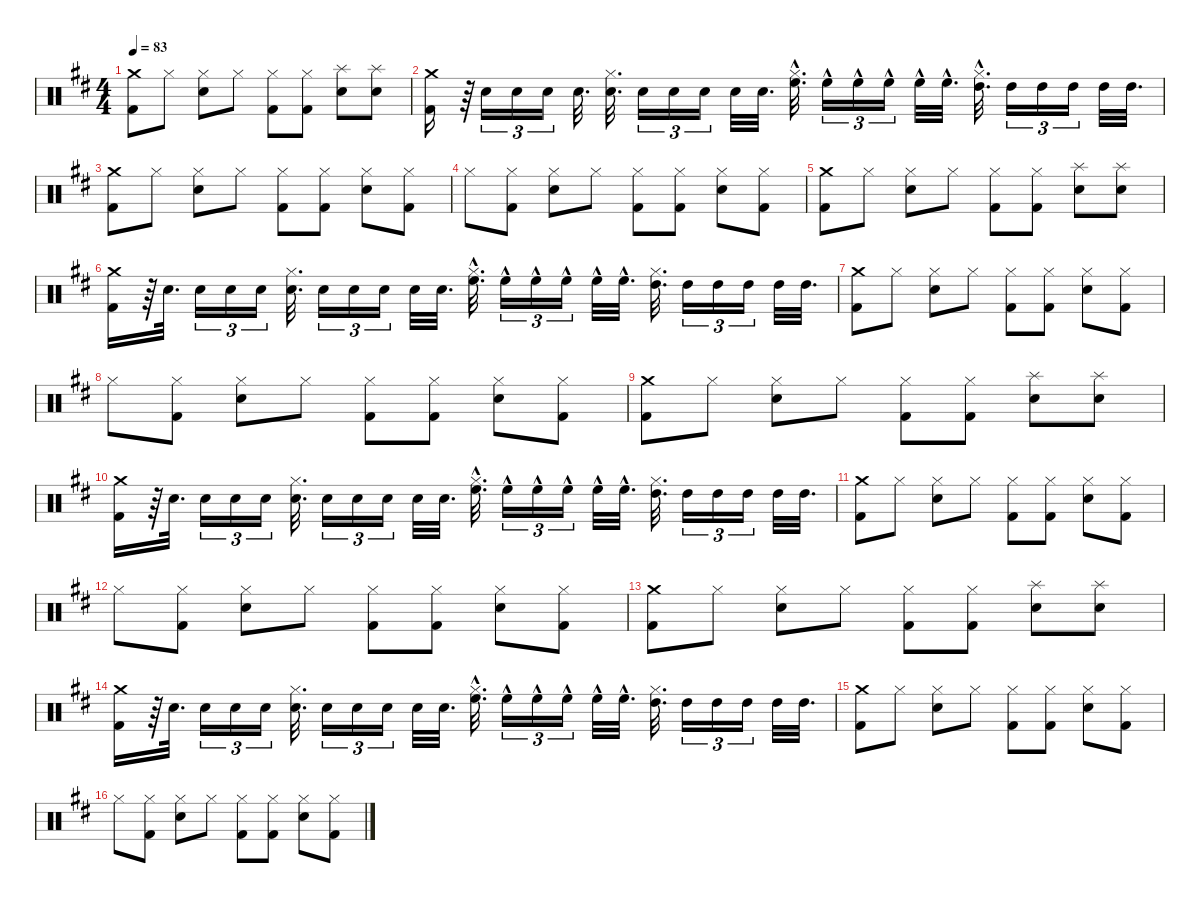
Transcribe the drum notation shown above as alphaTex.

\defaultSystemsLayout 4
\hideDynamics
\bracketExtendMode nobrackets
\singleTrackTrackNamePolicy hidden
\multiTrackTrackNamePolicy hidden
\otherSystemsTrackNameOrientation horizontal
\track ("Drumkit" "Drums") {defaultSystemsLayout 4 instrument percussion}
\staff {score}
\articulation defaults
\ts (4 4)
\tempo 83
\clef neutral
\ks d
("Kick (hit) 2"{acc forcenatural} "Crash medium (hit)"{acc forcenatural}).8{dy f beam Down} "Hi-Hat (closed)"{acc forcenatural}.8{beam Down} ("Snare (hit) 2"{acc forcenatural} "Hi-Hat (closed)"{acc forcenatural}).8{beam Down} "Hi-Hat (closed)"{acc forcenatural}.8{beam Down} ("Kick (hit) 2"{acc forcenatural} "Hi-Hat (closed)"{acc forcenatural}).8{beam Down} ("Kick (hit) 2"{acc forcenatural} "Hi-Hat (closed)"{acc forcenatural}).8{beam Down} ("Snare (hit) 2"{acc forcenatural} "Splash (hit)"{acc forcenatural}).8{beam Down} ("Snare (hit) 2"{acc forcenatural} "Splash (hit)"{acc forcenatural}).8{beam Down} |
("Kick (hit) 2"{acc forcenatural} "Crash medium (hit)"{acc forcenatural}).16{beam Down} r.64{beam Down} "Snare (hit) 2"{acc forcenatural}.16{tu (3 2) beam Down} "Snare (hit) 2"{acc forcenatural}.16{tu (3 2) beam Down} "Snare (hit) 2"{acc forcenatural}.16{tu (3 2) beam Down} "Snare (hit) 2"{acc forcenatural}.32{d beam Down} ("Snare (hit) 2"{acc forcenatural} "Hi-Hat (closed)"{acc forcenatural}).32{d beam Down} "Snare (hit) 2"{acc forcenatural}.16{tu (3 2) beam Down} "Snare (hit) 2"{acc forcenatural}.16{tu (3 2) beam Down} "Snare (hit) 2"{acc forcenatural}.16{tu (3 2) beam Down} "Snare (hit) 2"{acc forcenatural}.32{beam Down} "Snare (hit) 2"{acc forcenatural}.32{d beam Down} ("High Floor Tom (hit)"{hac acc forcenatural} "Hi-Hat (closed)"{hac acc forcenatural}).32{d beam Down} "High Floor Tom (hit)"{hac acc forcenatural}.16{tu (3 2) beam Down} "High Floor Tom (hit)"{hac acc forcenatural}.16{tu (3 2) beam Down} "High Floor Tom (hit)"{hac acc forcenatural}.16{tu (3 2) beam Down} "High Floor Tom (hit)"{hac acc forcenatural}.32{beam Down} "High Floor Tom (hit)"{hac acc forcenatural}.32{d beam Down} ("Hi-Hat (closed)"{hac acc forcenatural} "High Tom (hit)"{hac acc forcenatural}).32{d beam Down} "High Tom (hit)"{acc forcenatural}.16{tu (3 2) beam Down} "High Tom (hit)"{acc forcenatural}.16{tu (3 2) beam Down} "High Tom (hit)"{acc forcenatural}.16{tu (3 2) beam Down} "High Tom (hit)"{acc forcenatural}.32{beam Down} "High Tom (hit)"{acc forcenatural}.32{d beam Down} |
("Kick (hit) 2"{acc forcenatural} "Crash medium (hit)"{acc forcenatural}).8{beam Down} "Hi-Hat (closed)"{acc forcenatural}.8{beam Down} ("Snare (hit) 2"{acc forcenatural} "Hi-Hat (closed)"{acc forcenatural}).8{beam Down} "Hi-Hat (closed)"{acc forcenatural}.8{beam Down} ("Kick (hit) 2"{acc forcenatural} "Hi-Hat (closed)"{acc forcenatural}).8{beam Down} ("Kick (hit) 2"{acc forcenatural} "Hi-Hat (closed)"{acc forcenatural}).8{beam Down} ("Snare (hit) 2"{acc forcenatural} "Hi-Hat (closed)"{acc forcenatural}).8{beam Down} ("Kick (hit) 2"{acc forcenatural} "Hi-Hat (closed)"{acc forcenatural}).8{beam Down} |
"Hi-Hat (closed)"{acc forcenatural}.8{beam Down} ("Kick (hit) 2"{acc forcenatural} "Hi-Hat (closed)"{acc forcenatural}).8{beam Down} ("Snare (hit) 2"{acc forcenatural} "Hi-Hat (closed)"{acc forcenatural}).8{beam Down} "Hi-Hat (closed)"{acc forcenatural}.8{beam Down} ("Kick (hit) 2"{acc forcenatural} "Hi-Hat (closed)"{acc forcenatural}).8{beam Down} ("Kick (hit) 2"{acc forcenatural} "Hi-Hat (closed)"{acc forcenatural}).8{beam Down} ("Snare (hit) 2"{acc forcenatural} "Hi-Hat (closed)"{acc forcenatural}).8{beam Down} ("Kick (hit) 2"{acc forcenatural} "Hi-Hat (closed)"{acc forcenatural}).8{beam Down} |
("Kick (hit) 2"{acc forcenatural} "Crash medium (hit)"{acc forcenatural}).8{beam Down} "Hi-Hat (closed)"{acc forcenatural}.8{beam Down} ("Snare (hit) 2"{acc forcenatural} "Hi-Hat (closed)"{acc forcenatural}).8{beam Down} "Hi-Hat (closed)"{acc forcenatural}.8{beam Down} ("Kick (hit) 2"{acc forcenatural} "Hi-Hat (closed)"{acc forcenatural}).8{beam Down} ("Kick (hit) 2"{acc forcenatural} "Hi-Hat (closed)"{acc forcenatural}).8{beam Down} ("Snare (hit) 2"{acc forcenatural} "Splash (hit)"{acc forcenatural}).8{beam Down} ("Snare (hit) 2"{acc forcenatural} "Splash (hit)"{acc forcenatural}).8{beam Down} |
("Kick (hit) 2"{acc forcenatural} "Crash medium (hit)"{acc forcenatural}).16{beam Down} r.64{beam Down} "Snare (hit) 2"{acc forcenatural}.32{d beam Down} "Snare (hit) 2"{acc forcenatural}.16{tu (3 2) beam Down} "Snare (hit) 2"{acc forcenatural}.16{tu (3 2) beam Down} "Snare (hit) 2"{acc forcenatural}.16{tu (3 2) beam Down} ("Snare (hit) 2"{acc forcenatural} "Hi-Hat (closed)"{acc forcenatural}).32{d beam Down} "Snare (hit) 2"{acc forcenatural}.16{tu (3 2) beam Down} "Snare (hit) 2"{acc forcenatural}.16{tu (3 2) beam Down} "Snare (hit) 2"{acc forcenatural}.16{tu (3 2) beam Down} "Snare (hit) 2"{acc forcenatural}.32{beam Down} "Snare (hit) 2"{acc forcenatural}.32{d beam Down} ("High Floor Tom (hit)"{hac acc forcenatural} "Hi-Hat (closed)"{hac acc forcenatural}).32{d beam Down} "High Floor Tom (hit)"{hac acc forcenatural}.16{tu (3 2) beam Down} "High Floor Tom (hit)"{hac acc forcenatural}.16{tu (3 2) beam Down} "High Floor Tom (hit)"{hac acc forcenatural}.16{tu (3 2) beam Down} "High Floor Tom (hit)"{hac acc forcenatural}.32{beam Down} "High Floor Tom (hit)"{hac acc forcenatural}.32{d beam Down} ("Hi-Hat (closed)"{acc forcenatural} "High Tom (hit)"{acc forcenatural}).32{d beam Down} "High Tom (hit)"{acc forcenatural}.16{tu (3 2) beam Down} "High Tom (hit)"{acc forcenatural}.16{tu (3 2) beam Down} "High Tom (hit)"{acc forcenatural}.16{tu (3 2) beam Down} "High Tom (hit)"{acc forcenatural}.32{beam Down} "High Tom (hit)"{acc forcenatural}.32{d beam Down} |
("Kick (hit) 2"{acc forcenatural} "Crash medium (hit)"{acc forcenatural}).8{beam Down} "Hi-Hat (closed)"{acc forcenatural}.8{beam Down} ("Snare (hit) 2"{acc forcenatural} "Hi-Hat (closed)"{acc forcenatural}).8{beam Down} "Hi-Hat (closed)"{acc forcenatural}.8{beam Down} ("Kick (hit) 2"{acc forcenatural} "Hi-Hat (closed)"{acc forcenatural}).8{beam Down} ("Kick (hit) 2"{acc forcenatural} "Hi-Hat (closed)"{acc forcenatural}).8{beam Down} ("Snare (hit) 2"{acc forcenatural} "Hi-Hat (closed)"{acc forcenatural}).8{beam Down} ("Kick (hit) 2"{acc forcenatural} "Hi-Hat (closed)"{acc forcenatural}).8{beam Down} |
"Hi-Hat (closed)"{acc forcenatural}.8{beam Down} ("Kick (hit) 2"{acc forcenatural} "Hi-Hat (closed)"{acc forcenatural}).8{beam Down} ("Snare (hit) 2"{acc forcenatural} "Hi-Hat (closed)"{acc forcenatural}).8{beam Down} "Hi-Hat (closed)"{acc forcenatural}.8{beam Down} ("Kick (hit) 2"{acc forcenatural} "Hi-Hat (closed)"{acc forcenatural}).8{beam Down} ("Kick (hit) 2"{acc forcenatural} "Hi-Hat (closed)"{acc forcenatural}).8{beam Down} ("Snare (hit) 2"{acc forcenatural} "Hi-Hat (closed)"{acc forcenatural}).8{beam Down} ("Kick (hit) 2"{acc forcenatural} "Hi-Hat (closed)"{acc forcenatural}).8{beam Down} |
("Kick (hit) 2"{acc forcenatural} "Crash medium (hit)"{acc forcenatural}).8{beam Down} "Hi-Hat (closed)"{acc forcenatural}.8{beam Down} ("Snare (hit) 2"{acc forcenatural} "Hi-Hat (closed)"{acc forcenatural}).8{beam Down} "Hi-Hat (closed)"{acc forcenatural}.8{beam Down} ("Kick (hit) 2"{acc forcenatural} "Hi-Hat (closed)"{acc forcenatural}).8{beam Down} ("Kick (hit) 2"{acc forcenatural} "Hi-Hat (closed)"{acc forcenatural}).8{beam Down} ("Snare (hit) 2"{acc forcenatural} "Splash (hit)"{acc forcenatural}).8{beam Down} ("Snare (hit) 2"{acc forcenatural} "Splash (hit)"{acc forcenatural}).8{beam Down} |
("Kick (hit) 2"{acc forcenatural} "Crash medium (hit)"{acc forcenatural}).16{beam Down} r.64{beam Down} "Snare (hit) 2"{acc forcenatural}.32{d beam Down} "Snare (hit) 2"{acc forcenatural}.16{tu (3 2) beam Down} "Snare (hit) 2"{acc forcenatural}.16{tu (3 2) beam Down} "Snare (hit) 2"{acc forcenatural}.16{tu (3 2) beam Down} ("Snare (hit) 2"{acc forcenatural} "Hi-Hat (closed)"{acc forcenatural}).32{d beam Down} "Snare (hit) 2"{acc forcenatural}.16{tu (3 2) beam Down} "Snare (hit) 2"{acc forcenatural}.16{tu (3 2) beam Down} "Snare (hit) 2"{acc forcenatural}.16{tu (3 2) beam Down} "Snare (hit) 2"{acc forcenatural}.32{beam Down} "Snare (hit) 2"{acc forcenatural}.32{d beam Down} ("High Floor Tom (hit)"{hac acc forcenatural} "Hi-Hat (closed)"{acc forcenatural}).32{d beam Down} "High Floor Tom (hit)"{hac acc forcenatural}.16{tu (3 2) beam Down} "High Floor Tom (hit)"{hac acc forcenatural}.16{tu (3 2) beam Down} "High Floor Tom (hit)"{hac acc forcenatural}.16{tu (3 2) beam Down} "High Floor Tom (hit)"{hac acc forcenatural}.32{beam Down} "High Floor Tom (hit)"{hac acc forcenatural}.32{d beam Down} ("Hi-Hat (closed)"{acc forcenatural} "High Tom (hit)"{acc forcenatural}).32{d beam Down} "High Tom (hit)"{acc forcenatural}.16{tu (3 2) beam Down} "High Tom (hit)"{acc forcenatural}.16{tu (3 2) beam Down} "High Tom (hit)"{acc forcenatural}.16{tu (3 2) beam Down} "High Tom (hit)"{acc forcenatural}.32{beam Down} "High Tom (hit)"{acc forcenatural}.32{d beam Down} |
("Kick (hit) 2"{acc forcenatural} "Crash medium (hit)"{acc forcenatural}).8{beam Down} "Hi-Hat (closed)"{acc forcenatural}.8{beam Down} ("Snare (hit) 2"{acc forcenatural} "Hi-Hat (closed)"{acc forcenatural}).8{beam Down} "Hi-Hat (closed)"{acc forcenatural}.8{beam Down} ("Kick (hit) 2"{acc forcenatural} "Hi-Hat (closed)"{acc forcenatural}).8{beam Down} ("Kick (hit) 2"{acc forcenatural} "Hi-Hat (closed)"{acc forcenatural}).8{beam Down} ("Snare (hit) 2"{acc forcenatural} "Hi-Hat (closed)"{acc forcenatural}).8{beam Down} ("Kick (hit) 2"{acc forcenatural} "Hi-Hat (closed)"{acc forcenatural}).8{beam Down} |
"Hi-Hat (closed)"{acc forcenatural}.8{beam Down} ("Kick (hit) 2"{acc forcenatural} "Hi-Hat (closed)"{acc forcenatural}).8{beam Down} ("Snare (hit) 2"{acc forcenatural} "Hi-Hat (closed)"{acc forcenatural}).8{beam Down} "Hi-Hat (closed)"{acc forcenatural}.8{beam Down} ("Kick (hit) 2"{acc forcenatural} "Hi-Hat (closed)"{acc forcenatural}).8{beam Down} ("Kick (hit) 2"{acc forcenatural} "Hi-Hat (closed)"{acc forcenatural}).8{beam Down} ("Snare (hit) 2"{acc forcenatural} "Hi-Hat (closed)"{acc forcenatural}).8{beam Down} ("Kick (hit) 2"{acc forcenatural} "Hi-Hat (closed)"{acc forcenatural}).8{beam Down} |
("Kick (hit) 2"{acc forcenatural} "Crash medium (hit)"{acc forcenatural}).8{beam Down} "Hi-Hat (closed)"{acc forcenatural}.8{beam Down} ("Snare (hit) 2"{acc forcenatural} "Hi-Hat (closed)"{acc forcenatural}).8{beam Down} "Hi-Hat (closed)"{acc forcenatural}.8{beam Down} ("Kick (hit) 2"{acc forcenatural} "Hi-Hat (closed)"{acc forcenatural}).8{beam Down} ("Kick (hit) 2"{acc forcenatural} "Hi-Hat (closed)"{acc forcenatural}).8{beam Down} ("Snare (hit) 2"{acc forcenatural} "Splash (hit)"{acc forcenatural}).8{beam Down} ("Snare (hit) 2"{acc forcenatural} "Splash (hit)"{acc forcenatural}).8{beam Down} |
("Kick (hit) 2"{acc forcenatural} "Crash medium (hit)"{acc forcenatural}).16{beam Down} r.64{beam Down} "Snare (hit) 2"{acc forcenatural}.32{d beam Down} "Snare (hit) 2"{acc forcenatural}.16{tu (3 2) beam Down} "Snare (hit) 2"{acc forcenatural}.16{tu (3 2) beam Down} "Snare (hit) 2"{acc forcenatural}.16{tu (3 2) beam Down} ("Snare (hit) 2"{acc forcenatural} "Hi-Hat (closed)"{acc forcenatural}).32{d beam Down} "Snare (hit) 2"{acc forcenatural}.16{tu (3 2) beam Down} "Snare (hit) 2"{acc forcenatural}.16{tu (3 2) beam Down} "Snare (hit) 2"{acc forcenatural}.16{tu (3 2) beam Down} "Snare (hit) 2"{acc forcenatural}.32{beam Down} "Snare (hit) 2"{acc forcenatural}.32{d beam Down} ("High Floor Tom (hit)"{hac acc forcenatural} "Hi-Hat (closed)"{hac acc forcenatural}).32{d beam Down} "High Floor Tom (hit)"{hac acc forcenatural}.16{tu (3 2) beam Down} "High Floor Tom (hit)"{hac acc forcenatural}.16{tu (3 2) beam Down} "High Floor Tom (hit)"{hac acc forcenatural}.16{tu (3 2) beam Down} "High Floor Tom (hit)"{hac acc forcenatural}.32{beam Down} "High Floor Tom (hit)"{hac acc forcenatural}.32{d beam Down} ("Hi-Hat (closed)"{acc forcenatural} "High Tom (hit)"{acc forcenatural}).32{d beam Down} "High Tom (hit)"{acc forcenatural}.16{tu (3 2) beam Down} "High Tom (hit)"{acc forcenatural}.16{tu (3 2) beam Down} "High Tom (hit)"{acc forcenatural}.16{tu (3 2) beam Down} "High Tom (hit)"{acc forcenatural}.32{beam Down} "High Tom (hit)"{acc forcenatural}.32{d beam Down} |
("Kick (hit) 2"{acc forcenatural} "Crash medium (hit)"{acc forcenatural}).8{beam Down} "Hi-Hat (closed)"{acc forcenatural}.8{beam Down} ("Snare (hit) 2"{acc forcenatural} "Hi-Hat (closed)"{acc forcenatural}).8{beam Down} "Hi-Hat (closed)"{acc forcenatural}.8{beam Down} ("Kick (hit) 2"{acc forcenatural} "Hi-Hat (closed)"{acc forcenatural}).8{beam Down} ("Kick (hit) 2"{acc forcenatural} "Hi-Hat (closed)"{acc forcenatural}).8{beam Down} ("Snare (hit) 2"{acc forcenatural} "Hi-Hat (closed)"{acc forcenatural}).8{beam Down} ("Kick (hit) 2"{acc forcenatural} "Hi-Hat (closed)"{acc forcenatural}).8{beam Down} |
"Hi-Hat (closed)"{acc forcenatural}.8{beam Down} ("Kick (hit) 2"{acc forcenatural} "Hi-Hat (closed)"{acc forcenatural}).8{beam Down} ("Snare (hit) 2"{acc forcenatural} "Hi-Hat (closed)"{acc forcenatural}).8{beam Down} "Hi-Hat (closed)"{acc forcenatural}.8{beam Down} ("Kick (hit) 2"{acc forcenatural} "Hi-Hat (closed)"{acc forcenatural}).8{beam Down} ("Kick (hit) 2"{acc forcenatural} "Hi-Hat (closed)"{acc forcenatural}).8{beam Down} ("Snare (hit) 2"{acc forcenatural} "Hi-Hat (closed)"{acc forcenatural}).8{beam Down} ("Kick (hit) 2"{acc forcenatural} "Hi-Hat (closed)"{acc forcenatural}).8{beam Down}
